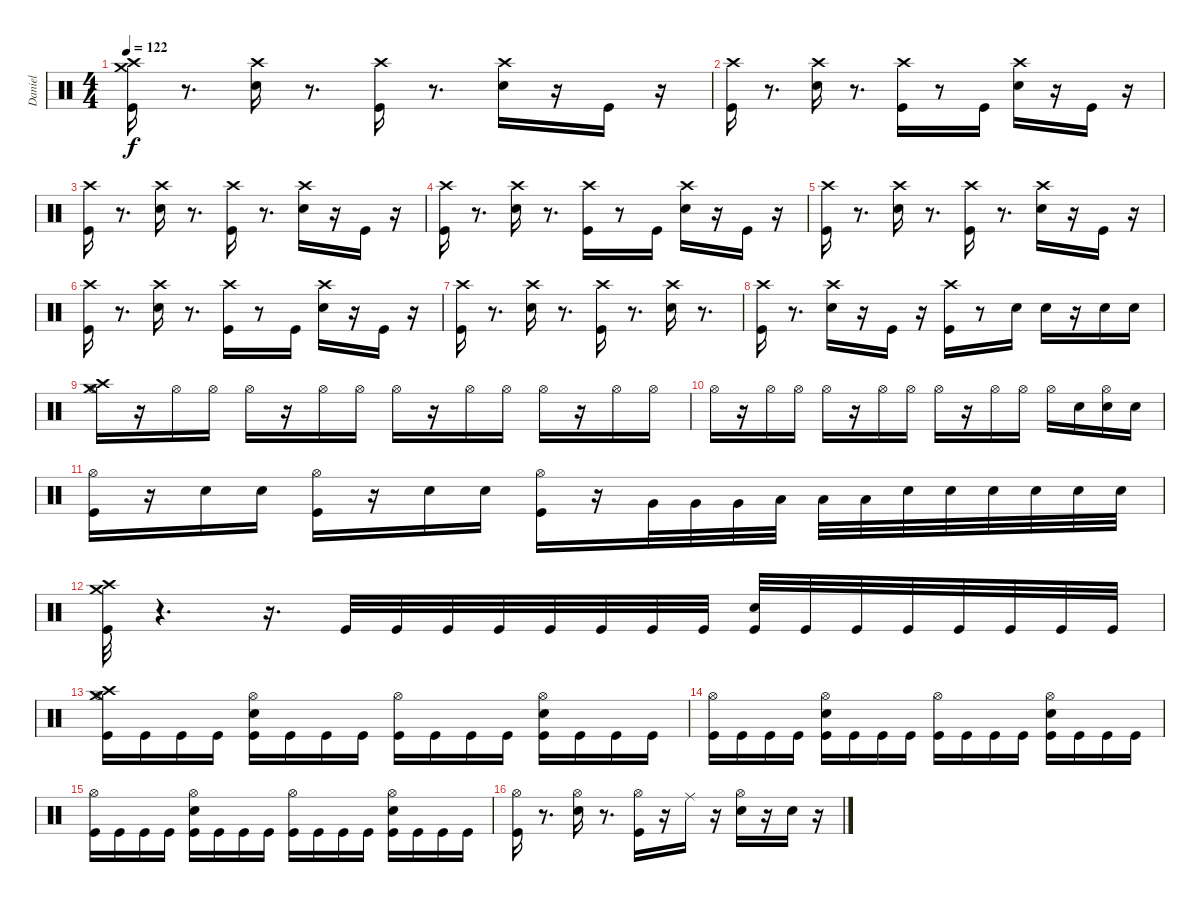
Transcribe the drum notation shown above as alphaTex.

\track ("Daniel" "Daniel") {instrument percussion}
\staff {score}
\articulation defaults
\ts (4 4)
\tempo 122
\clef neutral
\ks c
("Kick (hit)" "Crash high (hit)" "Crash medium (hit)").16{dy f} r.8{d} ("Electric Snare (hit)" "Crash high (hit)").16 r.8{d} ("Kick (hit)" "Crash high (hit)").16 r.8{d} ("Electric Snare (hit)" "Crash high (hit)").16 r.16 "Kick (hit)".16 r.16 |
("Kick (hit)" "Crash high (hit)").16 r.8{d} ("Electric Snare (hit)" "Crash high (hit)").16 r.8{d} ("Kick (hit)" "Crash high (hit)").16 r.8 "Kick (hit)".16 ("Electric Snare (hit)" "Crash high (hit)").16 r.16 "Kick (hit)".16 r.16 |
("Crash high (hit)" "Kick (hit)").16 r.8{d} ("Electric Snare (hit)" "Crash high (hit)").16 r.8{d} ("Kick (hit)" "Crash high (hit)").16 r.8{d} ("Electric Snare (hit)" "Crash high (hit)").16 r.16 "Kick (hit)".16 r.16 |
("Kick (hit)" "Crash high (hit)").16 r.8{d} ("Electric Snare (hit)" "Crash high (hit)").16 r.8{d} ("Kick (hit)" "Crash high (hit)").16 r.8 "Kick (hit)".16 ("Electric Snare (hit)" "Crash high (hit)").16 r.16 "Kick (hit)".16 r.16 |
("Crash high (hit)" "Kick (hit)").16 r.8{d} ("Electric Snare (hit)" "Crash high (hit)").16 r.8{d} ("Kick (hit)" "Crash high (hit)").16 r.8{d} ("Electric Snare (hit)" "Crash high (hit)").16 r.16 "Kick (hit)".16 r.16 |
("Kick (hit)" "Crash high (hit)").16 r.8{d} ("Electric Snare (hit)" "Crash high (hit)").16 r.8{d} ("Kick (hit)" "Crash high (hit)").16 r.8 "Kick (hit)".16 ("Electric Snare (hit)" "Crash high (hit)").16 r.16 "Kick (hit)".16 r.16 |
("Crash high (hit)" "Kick (hit)").16 r.8{d} ("Electric Snare (hit)" "Crash high (hit)").16 r.8{d} ("Kick (hit)" "Crash high (hit)").16 r.8{d} ("Electric Snare (hit)" "Crash high (hit)").16 r.8{d} |
("Kick (hit)" "Crash high (hit)").16 r.8{d} ("Electric Snare (hit)" "Crash high (hit)").16 r.16 "Kick (hit)".16 r.16 ("Kick (hit)" "Crash high (hit)").16 r.8 "Electric Snare (hit)".16 "Snare (hit) 2".16 r.16 "Electric Snare (hit)".16 "Electric Snare (hit)".16 |
("Crash high (hit)" "Crash medium (hit)" "Hi-Hat (open)").16 r.16 "Hi-Hat (open)".16 "Hi-Hat (open)".16 "Hi-Hat (open)".16 r.16 "Hi-Hat (open)".16 "Hi-Hat (open)".16 "Hi-Hat (open)".16 r.16 "Hi-Hat (open)".16 "Hi-Hat (open)".16 "Hi-Hat (open)".16 r.16 "Hi-Hat (open)".16 "Hi-Hat (open)".16 |
"Hi-Hat (open)".16 r.16 "Hi-Hat (open)".16 "Hi-Hat (open)".16 "Hi-Hat (open)".16 r.16 "Hi-Hat (open)".16 "Hi-Hat (open)".16 "Hi-Hat (open)".16 r.16 "Hi-Hat (open)".16 "Hi-Hat (open)".16 "Hi-Hat (open)".16 "Electric Snare (hit)".16 ("Electric Snare (hit)" "Hi-Hat (open)").16 "Electric Snare (hit)".16 |
("Kick (hit)" "Hi-Hat (open)").16 r.16 "Electric Snare (hit)".16 "Electric Snare (hit)".16 ("Kick (hit)" "Hi-Hat (open)").16 r.16 "Electric Snare (hit)".16 "Electric Snare (hit)".16 ("Kick (hit)" "Hi-Hat (open)").16 r.16 "Very Low Tom (hit)".32 "Very Low Tom (hit)".32 "Very Low Tom (hit)".32 "Low Tom (hit)".32 "Low Tom (hit)".32 "Low Tom (hit)".32 "Snare (hit) 2".32 "Snare (hit) 2".32 "Snare (hit) 2".32 "Electric Snare (hit)".32 "Electric Snare (hit)".32 "Electric Snare (hit)".32 |
("Crash medium (hit)" "Crash high (hit)" "Kick (hit)").32 r.4{d} r.16{d} "Kick (hit)".32 "Kick (hit)".32 "Kick (hit)".32 "Kick (hit)".32 "Kick (hit)".32 "Kick (hit)".32 "Kick (hit)".32 "Kick (hit)".32 ("Snare (hit) 2" "Kick (hit)").32 "Kick (hit)".32 "Kick (hit)".32 "Kick (hit)".32 "Kick (hit)".32 "Kick (hit)".32 "Kick (hit)".32 "Kick (hit)".32 |
("Crash medium (hit)" "Hi-Hat (open)" "Crash high (hit)" "Kick (hit)").16 "Kick (hit)".16 "Kick (hit)".16 "Kick (hit)".16 ("Electric Snare (hit)" "Hi-Hat (open)" "Kick (hit)").16 "Kick (hit)".16 "Kick (hit)".16 "Kick (hit)".16 ("Hi-Hat (open)" "Kick (hit)").16 "Kick (hit)".16 "Kick (hit)".16 "Kick (hit)".16 ("Electric Snare (hit)" "Hi-Hat (open)" "Kick (hit)").16 "Kick (hit)".16 "Kick (hit)".16 "Kick (hit)".16 |
("Hi-Hat (open)" "Kick (hit)").16 "Kick (hit)".16 "Kick (hit)".16 "Kick (hit)".16 ("Electric Snare (hit)" "Hi-Hat (open)" "Kick (hit)").16 "Kick (hit)".16 "Kick (hit)".16 "Kick (hit)".16 ("Hi-Hat (open)" "Kick (hit)").16 "Kick (hit)".16 "Kick (hit)".16 "Kick (hit)".16 ("Electric Snare (hit)" "Hi-Hat (open)" "Kick (hit)").16 "Kick (hit)".16 "Kick (hit)".16 "Kick (hit)".16 |
("Hi-Hat (open)" "Kick (hit)").16 "Kick (hit)".16 "Kick (hit)".16 "Kick (hit)".16 ("Electric Snare (hit)" "Hi-Hat (open)" "Kick (hit)").16 "Kick (hit)".16 "Kick (hit)".16 "Kick (hit)".16 ("Hi-Hat (open)" "Kick (hit)").16 "Kick (hit)".16 "Kick (hit)".16 "Kick (hit)".16 ("Electric Snare (hit)" "Hi-Hat (open)" "Kick (hit)").16 "Kick (hit)".16 "Kick (hit)".16 "Kick (hit)".16 |
("Hi-Hat (open)" "Kick (hit)").16 r.8{d} ("Electric Snare (hit)" "Hi-Hat (open)").16 r.8{d} ("Hi-Hat (open)" "Kick (hit)").16 r.16 "Ride (middle)".16 r.16 ("Electric Snare (hit)" "Hi-Hat (open)").16 r.16 "Electric Snare (hit)".16 r.16
